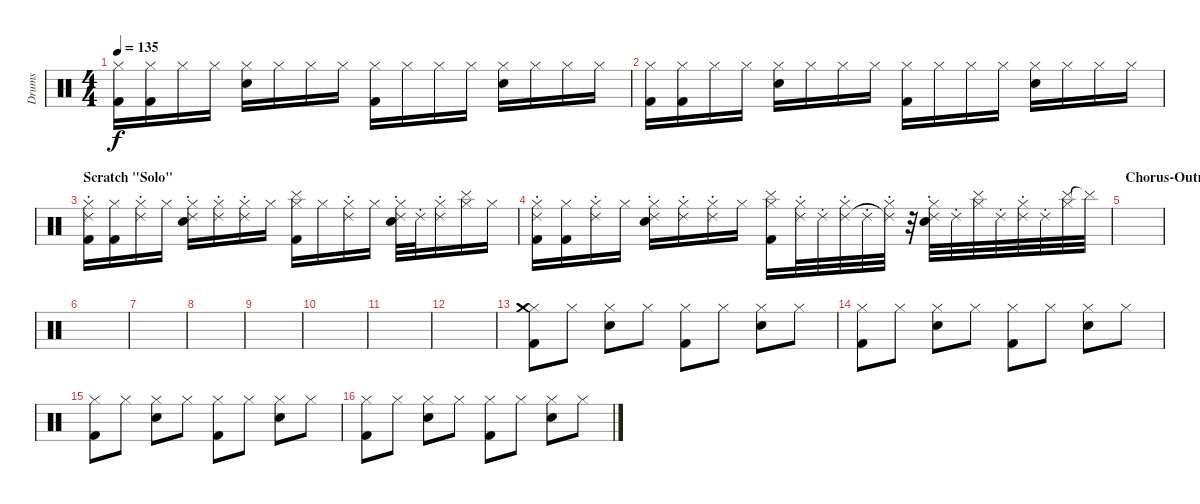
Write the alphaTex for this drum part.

\track ("Drums" "Drums") {instrument percussion}
\staff {score}
\articulation defaults
\ts (4 4)
\tempo 135
\clef neutral
\ks c
("Hi-Hat (closed)" "Kick (hit) 2").16{dy f} ("Hi-Hat (closed)" "Kick (hit) 2").16 "Hi-Hat (closed)".16 "Hi-Hat (closed)".16 ("Hi-Hat (closed)" "Snare (hit) 2").16 "Hi-Hat (closed)".16 "Hi-Hat (closed)".16 "Hi-Hat (closed)".16 ("Hi-Hat (closed)" "Kick (hit) 2").16 "Hi-Hat (closed)".16 "Hi-Hat (closed)".16 "Hi-Hat (closed)".16 ("Hi-Hat (closed)" "Snare (hit) 2").16 "Hi-Hat (closed)".16 "Hi-Hat (closed)".16 "Hi-Hat (closed)".16 |
("Hi-Hat (closed)" "Kick (hit) 2").16 ("Hi-Hat (closed)" "Kick (hit) 2").16 "Hi-Hat (closed)".16 "Hi-Hat (closed)".16 ("Hi-Hat (closed)" "Snare (hit) 2").16 "Hi-Hat (closed)".16 "Hi-Hat (closed)".16 "Hi-Hat (closed)".16 ("Hi-Hat (closed)" "Kick (hit) 2").16 "Hi-Hat (closed)".16 "Hi-Hat (closed)".16 "Hi-Hat (closed)".16 ("Hi-Hat (closed)" "Snare (hit) 2").16 "Hi-Hat (closed)".16 "Hi-Hat (closed)".16 "Hi-Hat (closed)".16 |
\section ("" "Scratch \"Solo\"")
("Hi-Hat (closed)" "Kick (hit) 2" "Ride (choke) 2").16 ("Hi-Hat (closed)" "Kick (hit) 2").16 ("Hi-Hat (closed)" "Ride (choke) 2").16 "Hi-Hat (closed)".16 ("Hi-Hat (closed)" "Snare (hit) 2" "Ride (choke) 2").16 ("Hi-Hat (closed)" "Ride (choke) 2").16 ("Hi-Hat (closed)" "Ride (choke) 2").16 "Hi-Hat (closed)".16 ("Hi-Hat (closed)" "Kick (hit) 2" "Cymbal (hit)").16 "Hi-Hat (closed)".16 ("Hi-Hat (closed)" "Ride (choke) 2").16 "Hi-Hat (closed)".16 ("Hi-Hat (closed)" "Snare (hit) 2" "Ride (choke) 2").32 "Ride (choke) 2".32 ("Hi-Hat (closed)" "Ride (choke) 2").16 ("Hi-Hat (closed)" "Cymbal (hit)").16 "Hi-Hat (closed)".16 |
("Hi-Hat (closed)" "Kick (hit) 2" "Ride (choke) 2").16 ("Hi-Hat (closed)" "Kick (hit) 2").16 ("Hi-Hat (closed)" "Ride (choke) 2").16 "Hi-Hat (closed)".16 ("Hi-Hat (closed)" "Snare (hit) 2" "Ride (choke) 2").16 ("Hi-Hat (closed)" "Ride (choke) 2").16 ("Hi-Hat (closed)" "Ride (choke) 2").16 "Hi-Hat (closed)".16 ("Hi-Hat (closed)" "Kick (hit) 2" "Cymbal (hit)").16 ("Hi-Hat (closed)" "Ride (choke) 2").32 "Ride (choke) 2".32 ("Hi-Hat (closed)" "Ride (choke) 2").32 "Ride (choke) 2".32 ("Hi-Hat (closed)" "Ride (choke) 2"{t}).32 r.32 ("Hi-Hat (closed)" "Snare (hit) 2" "Ride (choke) 2").32 "Ride (choke) 2".32 ("Hi-Hat (closed)" "Cymbal (hit)").32 "Ride (choke) 2".32 ("Hi-Hat (closed)" "Ride (choke) 2").32 "Ride (choke) 2".32 ("Hi-Hat (closed)" "Cymbal (hit)").32 "Cymbal (hit)"{t}.32 |
\section ("" "Chorus-Outro")
|
|
|
|
|
|
|
|
("Hi-Hat (closed)" "Kick (hit) 2" "Crash medium (hit)").8 "Hi-Hat (closed)".8 ("Hi-Hat (closed)" "Snare (hit) 2").8 "Hi-Hat (closed)".8 ("Hi-Hat (closed)" "Kick (hit) 2").8 "Hi-Hat (closed)".8 ("Hi-Hat (closed)" "Snare (hit) 2").8 "Hi-Hat (closed)".8 |
("Hi-Hat (closed)" "Kick (hit) 2").8 "Hi-Hat (closed)".8 ("Hi-Hat (closed)" "Snare (hit) 2").8 "Hi-Hat (closed)".8 ("Hi-Hat (closed)" "Kick (hit) 2").8 "Hi-Hat (closed)".8 ("Hi-Hat (closed)" "Snare (hit) 2").8 "Hi-Hat (closed)".8 |
("Hi-Hat (closed)" "Kick (hit) 2").8 "Hi-Hat (closed)".8 ("Hi-Hat (closed)" "Snare (hit) 2").8 "Hi-Hat (closed)".8 ("Hi-Hat (closed)" "Kick (hit) 2").8 "Hi-Hat (closed)".8 ("Hi-Hat (closed)" "Snare (hit) 2").8 "Hi-Hat (closed)".8 |
("Hi-Hat (closed)" "Kick (hit) 2").8 "Hi-Hat (closed)".8 ("Hi-Hat (closed)" "Snare (hit) 2").8 "Hi-Hat (closed)".8 ("Hi-Hat (closed)" "Kick (hit) 2").8 "Hi-Hat (closed)".8 ("Hi-Hat (closed)" "Snare (hit) 2").8 "Hi-Hat (closed)".8
